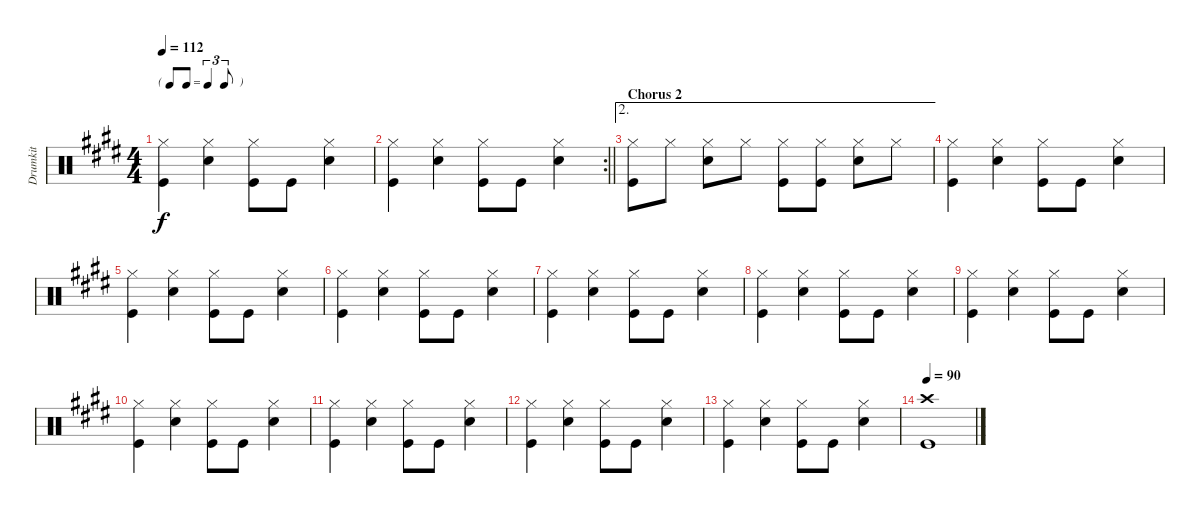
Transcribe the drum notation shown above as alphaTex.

\track ("Drumkit" "Drumkit") {instrument percussion}
\staff {score}
\articulation defaults
\ts (4 4)
\tf triplet8th
\tempo 112
\clef neutral
\ks e
("Hi-Hat (closed)" "Kick (hit)").4{dy f} ("Hi-Hat (closed)" "Snare (hit) 2").4 ("Hi-Hat (closed)" "Kick (hit)").8 "Kick (hit)".8 ("Hi-Hat (closed)" "Snare (hit) 2").4 |
\rc 2
\barLineRight lightlight
("Hi-Hat (closed)" "Kick (hit)").4 ("Hi-Hat (closed)" "Snare (hit) 2").4 ("Hi-Hat (closed)" "Kick (hit)").8 "Kick (hit)".8 ("Hi-Hat (closed)" "Snare (hit) 2").4 |
\ae 2
\section ("" "Chorus 2")
("Hi-Hat (closed)" "Kick (hit)").8 "Hi-Hat (closed)".8 ("Hi-Hat (closed)" "Snare (hit) 2").8 "Hi-Hat (closed)".8 ("Hi-Hat (closed)" "Kick (hit)").8 ("Hi-Hat (closed)" "Kick (hit)").8 ("Hi-Hat (closed)" "Snare (hit) 2").8 "Hi-Hat (closed)".8 |
("Hi-Hat (closed)" "Kick (hit)").4 ("Hi-Hat (closed)" "Snare (hit) 2").4 ("Hi-Hat (closed)" "Kick (hit)").8 "Kick (hit)".8 ("Hi-Hat (closed)" "Snare (hit) 2").4 |
("Hi-Hat (closed)" "Kick (hit)").4 ("Hi-Hat (closed)" "Snare (hit) 2").4 ("Hi-Hat (closed)" "Kick (hit)").8 "Kick (hit)".8 ("Hi-Hat (closed)" "Snare (hit) 2").4 |
("Hi-Hat (closed)" "Kick (hit)").4 ("Hi-Hat (closed)" "Snare (hit) 2").4 ("Hi-Hat (closed)" "Kick (hit)").8 "Kick (hit)".8 ("Hi-Hat (closed)" "Snare (hit) 2").4 |
("Hi-Hat (closed)" "Kick (hit)").4 ("Hi-Hat (closed)" "Snare (hit) 2").4 ("Hi-Hat (closed)" "Kick (hit)").8 "Kick (hit)".8 ("Hi-Hat (closed)" "Snare (hit) 2").4 |
("Hi-Hat (closed)" "Kick (hit)").4 ("Hi-Hat (closed)" "Snare (hit) 2").4 ("Hi-Hat (closed)" "Kick (hit)").8 "Kick (hit)".8 ("Hi-Hat (closed)" "Snare (hit) 2").4 |
("Hi-Hat (closed)" "Kick (hit)").4 ("Hi-Hat (closed)" "Snare (hit) 2").4 ("Hi-Hat (closed)" "Kick (hit)").8 "Kick (hit)".8 ("Hi-Hat (closed)" "Snare (hit) 2").4 |
("Hi-Hat (closed)" "Kick (hit)").4 ("Hi-Hat (closed)" "Snare (hit) 2").4 ("Hi-Hat (closed)" "Kick (hit)").8 "Kick (hit)".8 ("Hi-Hat (closed)" "Snare (hit) 2").4 |
("Hi-Hat (closed)" "Kick (hit)").4 ("Hi-Hat (closed)" "Snare (hit) 2").4 ("Hi-Hat (closed)" "Kick (hit)").8 "Kick (hit)".8 ("Hi-Hat (closed)" "Snare (hit) 2").4 |
("Hi-Hat (closed)" "Kick (hit)").4 ("Hi-Hat (closed)" "Snare (hit) 2").4 ("Hi-Hat (closed)" "Kick (hit)").8 "Kick (hit)".8 ("Hi-Hat (closed)" "Snare (hit) 2").4 |
("Hi-Hat (closed)" "Kick (hit)").4 ("Hi-Hat (closed)" "Snare (hit) 2").4 ("Hi-Hat (closed)" "Kick (hit)").8 "Kick (hit)".8 ("Hi-Hat (closed)" "Snare (hit) 2").4 |
\tempo 90
("Crash high (hit)" "Kick (hit)").1
